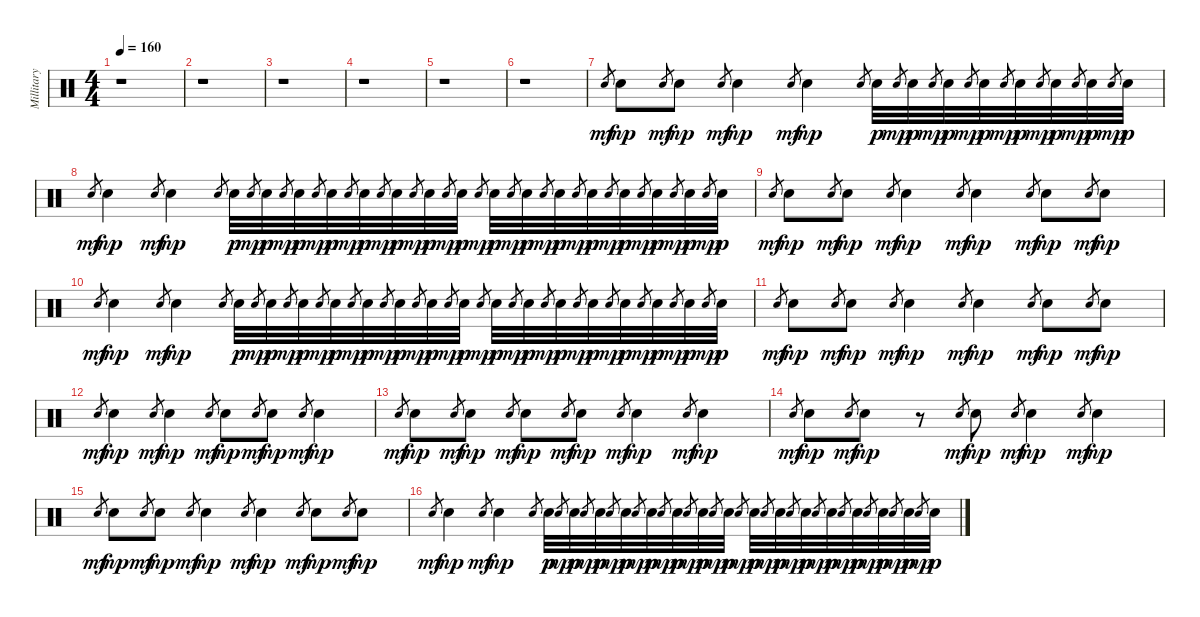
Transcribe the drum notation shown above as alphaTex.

\track ("Millitary snare" "Millitary ") {instrument percussion}
\staff {score}
\articulation defaults
\ts (4 4)
\tempo 160
\clef neutral
\ks c
r.1{dy mf} |
r.1 |
r.1 |
r.1 |
r.1 |
r.1 |
"Electric Snare (hit)".8{gr} "Electric Snare (hit)".8{dy mp} "Electric Snare (hit)".8{gr dy mf} "Electric Snare (hit)".8{dy mp} "Electric Snare (hit)".8{gr dy mf} "Electric Snare (hit)".4{dy mp} "Electric Snare (hit)".8{gr dy mf} "Electric Snare (hit)".4{dy mp} "Electric Snare (hit)".8{gr} "Electric Snare (hit)".32{dy p} "Electric Snare (hit)".8{gr dy mp} "Electric Snare (hit)".32{dy p} "Electric Snare (hit)".8{gr dy mp} "Electric Snare (hit)".32{dy p} "Electric Snare (hit)".8{gr dy mp} "Electric Snare (hit)".32{dy p} "Electric Snare (hit)".8{gr dy mp} "Electric Snare (hit)".32{dy p} "Electric Snare (hit)".8{gr dy mp} "Electric Snare (hit)".32{dy p} "Electric Snare (hit)".8{gr dy mp} "Electric Snare (hit)".32{dy p} "Electric Snare (hit)".8{gr dy mp} "Electric Snare (hit)".32{dy p} |
"Electric Snare (hit)".8{gr dy mf} "Electric Snare (hit)".4{dy mp} "Electric Snare (hit)".8{gr dy mf} "Electric Snare (hit)".4{dy mp} "Electric Snare (hit)".8{gr} "Electric Snare (hit)".32{dy p} "Electric Snare (hit)".8{gr dy mp} "Electric Snare (hit)".32{dy p} "Electric Snare (hit)".8{gr dy mp} "Electric Snare (hit)".32{dy p} "Electric Snare (hit)".8{gr dy mp} "Electric Snare (hit)".32{dy p} "Electric Snare (hit)".8{gr dy mp} "Electric Snare (hit)".32{dy p} "Electric Snare (hit)".8{gr dy mp} "Electric Snare (hit)".32{dy p} "Electric Snare (hit)".8{gr dy mp} "Electric Snare (hit)".32{dy p} "Electric Snare (hit)".8{gr dy mp} "Electric Snare (hit)".32{dy p} "Electric Snare (hit)".8{gr dy mp} "Electric Snare (hit)".32{dy p} "Electric Snare (hit)".8{gr dy mp} "Electric Snare (hit)".32{dy p} "Electric Snare (hit)".8{gr dy mp} "Electric Snare (hit)".32{dy p} "Electric Snare (hit)".8{gr dy mp} "Electric Snare (hit)".32{dy p} "Electric Snare (hit)".8{gr dy mp} "Electric Snare (hit)".32{dy p} "Electric Snare (hit)".8{gr dy mp} "Electric Snare (hit)".32{dy p} "Electric Snare (hit)".8{gr dy mp} "Electric Snare (hit)".32{dy p} "Electric Snare (hit)".8{gr dy mp} "Electric Snare (hit)".32{dy p} |
"Electric Snare (hit)".8{gr dy mf} "Electric Snare (hit)".8{dy mp} "Electric Snare (hit)".8{gr dy mf} "Electric Snare (hit)".8{dy mp} "Electric Snare (hit)".8{gr dy mf} "Electric Snare (hit)".4{dy mp} "Electric Snare (hit)".8{gr dy mf} "Electric Snare (hit)".4{dy mp} "Electric Snare (hit)".8{gr dy mf} "Electric Snare (hit)".8{dy mp} "Electric Snare (hit)".8{gr dy mf} "Electric Snare (hit)".8{dy mp} |
"Electric Snare (hit)".8{gr dy mf} "Electric Snare (hit)".4{dy mp} "Electric Snare (hit)".8{gr dy mf} "Electric Snare (hit)".4{dy mp} "Electric Snare (hit)".8{gr} "Electric Snare (hit)".32{dy p} "Electric Snare (hit)".8{gr dy mp} "Electric Snare (hit)".32{dy p} "Electric Snare (hit)".8{gr dy mp} "Electric Snare (hit)".32{dy p} "Electric Snare (hit)".8{gr dy mp} "Electric Snare (hit)".32{dy p} "Electric Snare (hit)".8{gr dy mp} "Electric Snare (hit)".32{dy p} "Electric Snare (hit)".8{gr dy mp} "Electric Snare (hit)".32{dy p} "Electric Snare (hit)".8{gr dy mp} "Electric Snare (hit)".32{dy p} "Electric Snare (hit)".8{gr dy mp} "Electric Snare (hit)".32{dy p} "Electric Snare (hit)".8{gr dy mp} "Electric Snare (hit)".32{dy p} "Electric Snare (hit)".8{gr dy mp} "Electric Snare (hit)".32{dy p} "Electric Snare (hit)".8{gr dy mp} "Electric Snare (hit)".32{dy p} "Electric Snare (hit)".8{gr dy mp} "Electric Snare (hit)".32{dy p} "Electric Snare (hit)".8{gr dy mp} "Electric Snare (hit)".32{dy p} "Electric Snare (hit)".8{gr dy mp} "Electric Snare (hit)".32{dy p} "Electric Snare (hit)".8{gr dy mp} "Electric Snare (hit)".32{dy p} "Electric Snare (hit)".8{gr dy mp} "Electric Snare (hit)".32{dy p} |
"Electric Snare (hit)".8{gr dy mf} "Electric Snare (hit)".8{dy mp} "Electric Snare (hit)".8{gr dy mf} "Electric Snare (hit)".8{dy mp} "Electric Snare (hit)".8{gr dy mf} "Electric Snare (hit)".4{dy mp} "Electric Snare (hit)".8{gr dy mf} "Electric Snare (hit)".4{dy mp} "Electric Snare (hit)".8{gr dy mf} "Electric Snare (hit)".8{dy mp} "Electric Snare (hit)".8{gr dy mf} "Electric Snare (hit)".8{dy mp} |
"Electric Snare (hit)".8{gr dy mf} "Electric Snare (hit)".4{dy mp} "Electric Snare (hit)".8{gr dy mf} "Electric Snare (hit)".4{dy mp} "Electric Snare (hit)".8{gr dy mf} "Electric Snare (hit)".8{dy mp} "Electric Snare (hit)".8{gr dy mf} "Electric Snare (hit)".8{dy mp} "Electric Snare (hit)".8{gr dy mf} "Electric Snare (hit)".4{dy mp} |
"Electric Snare (hit)".8{gr dy mf} "Electric Snare (hit)".8{dy mp} "Electric Snare (hit)".8{gr dy mf} "Electric Snare (hit)".8{dy mp} "Electric Snare (hit)".8{gr dy mf} "Electric Snare (hit)".8{dy mp} "Electric Snare (hit)".8{gr dy mf} "Electric Snare (hit)".8{dy mp} "Electric Snare (hit)".8{gr dy mf} "Electric Snare (hit)".4{dy mp} "Electric Snare (hit)".8{gr dy mf} "Electric Snare (hit)".4{dy mp} |
"Electric Snare (hit)".8{gr dy mf} "Electric Snare (hit)".8{dy mp} "Electric Snare (hit)".8{gr dy mf} "Electric Snare (hit)".8{dy mp} r.8 "Electric Snare (hit)".8{gr dy mf} "Electric Snare (hit)".8{dy mp} "Electric Snare (hit)".8{gr dy mf} "Electric Snare (hit)".4{dy mp} "Electric Snare (hit)".8{gr dy mf} "Electric Snare (hit)".4{dy mp} |
"Electric Snare (hit)".8{gr dy mf} "Electric Snare (hit)".8{dy mp} "Electric Snare (hit)".8{gr dy mf} "Electric Snare (hit)".8{dy mp} "Electric Snare (hit)".8{gr dy mf} "Electric Snare (hit)".4{dy mp} "Electric Snare (hit)".8{gr dy mf} "Electric Snare (hit)".4{dy mp} "Electric Snare (hit)".8{gr dy mf} "Electric Snare (hit)".8{dy mp} "Electric Snare (hit)".8{gr dy mf} "Electric Snare (hit)".8{dy mp} |
"Electric Snare (hit)".8{gr dy mf} "Electric Snare (hit)".4{dy mp} "Electric Snare (hit)".8{gr dy mf} "Electric Snare (hit)".4{dy mp} "Electric Snare (hit)".8{gr} "Electric Snare (hit)".32{dy p} "Electric Snare (hit)".8{gr dy mp} "Electric Snare (hit)".32{dy p} "Electric Snare (hit)".8{gr dy mp} "Electric Snare (hit)".32{dy p} "Electric Snare (hit)".8{gr dy mp} "Electric Snare (hit)".32{dy p} "Electric Snare (hit)".8{gr dy mp} "Electric Snare (hit)".32{dy p} "Electric Snare (hit)".8{gr dy mp} "Electric Snare (hit)".32{dy p} "Electric Snare (hit)".8{gr dy mp} "Electric Snare (hit)".32{dy p} "Electric Snare (hit)".8{gr dy mp} "Electric Snare (hit)".32{dy p} "Electric Snare (hit)".8{gr dy mp} "Electric Snare (hit)".32{dy p} "Electric Snare (hit)".8{gr dy mp} "Electric Snare (hit)".32{dy p} "Electric Snare (hit)".8{gr dy mp} "Electric Snare (hit)".32{dy p} "Electric Snare (hit)".8{gr dy mp} "Electric Snare (hit)".32{dy p} "Electric Snare (hit)".8{gr dy mp} "Electric Snare (hit)".32{dy p} "Electric Snare (hit)".8{gr dy mp} "Electric Snare (hit)".32{dy p} "Electric Snare (hit)".8{gr dy mp} "Electric Snare (hit)".32{dy p} "Electric Snare (hit)".8{gr dy mp} "Electric Snare (hit)".32{dy p}
